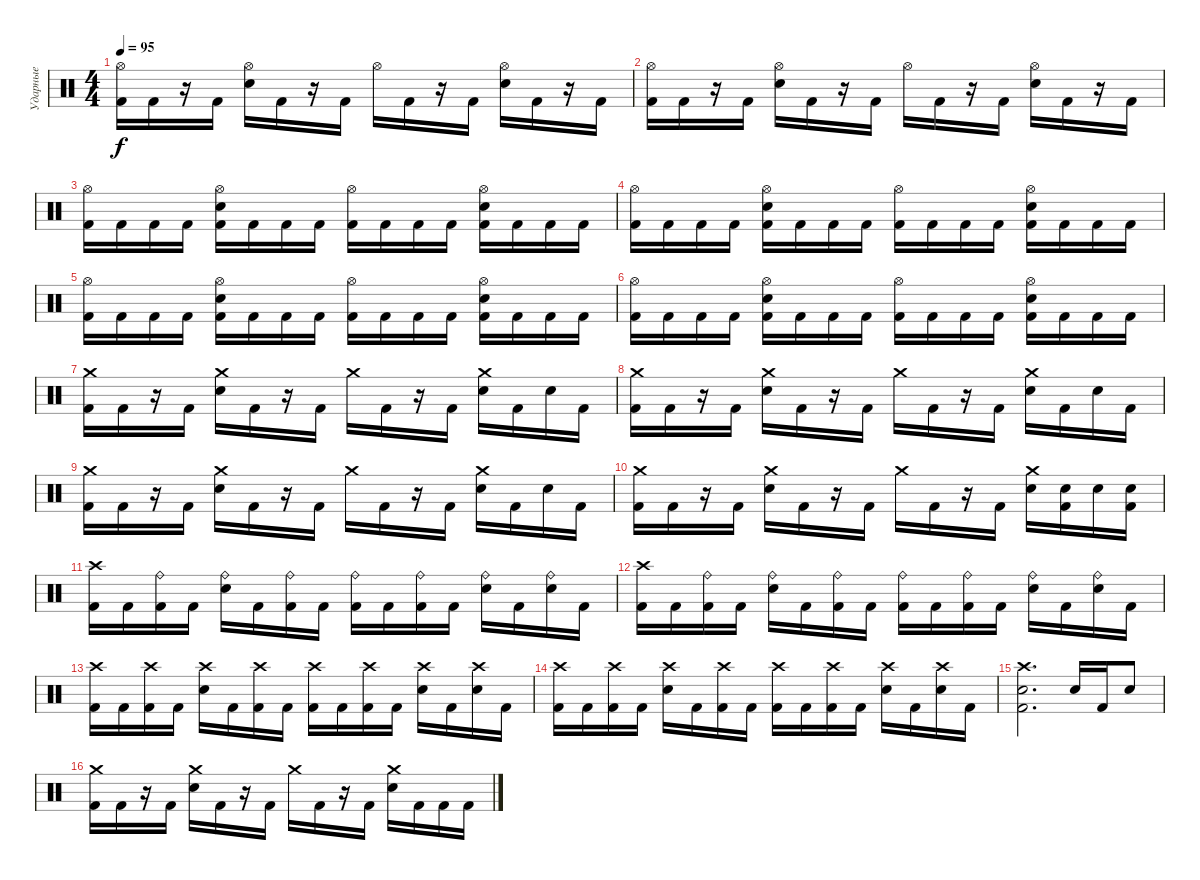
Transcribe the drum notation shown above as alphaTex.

\track ("Ударные" "Ударные") {instrument percussion}
\staff {score}
\articulation defaults
\ts (4 4)
\tempo 95
\clef neutral
\ks c
("Hi-Hat (open)" "Kick (hit) 2").16{dy f} "Kick (hit) 2".16 r.16 "Kick (hit) 2".16 ("Hi-Hat (open)" "Electric Snare (hit)").16 "Kick (hit) 2".16 r.16 "Kick (hit) 2".16 "Hi-Hat (open)".16 "Kick (hit) 2".16 r.16 "Kick (hit) 2".16 ("Hi-Hat (open)" "Electric Snare (hit)").16 "Kick (hit) 2".16 r.16 "Kick (hit) 2".16 |
("Hi-Hat (open)" "Kick (hit) 2").16 "Kick (hit) 2".16 r.16 "Kick (hit) 2".16 ("Hi-Hat (open)" "Electric Snare (hit)").16 "Kick (hit) 2".16 r.16 "Kick (hit) 2".16 "Hi-Hat (open)".16 "Kick (hit) 2".16 r.16 "Kick (hit) 2".16 ("Hi-Hat (open)" "Electric Snare (hit)").16 "Kick (hit) 2".16 r.16 "Kick (hit) 2".16 |
("Hi-Hat (open)" "Kick (hit) 2").16 "Kick (hit) 2".16 "Kick (hit) 2".16 "Kick (hit) 2".16 ("Hi-Hat (open)" "Electric Snare (hit)" "Kick (hit) 2").16 "Kick (hit) 2".16 "Kick (hit) 2".16 "Kick (hit) 2".16 ("Hi-Hat (open)" "Kick (hit) 2").16 "Kick (hit) 2".16 "Kick (hit) 2".16 "Kick (hit) 2".16 ("Hi-Hat (open)" "Electric Snare (hit)" "Kick (hit) 2").16 "Kick (hit) 2".16 "Kick (hit) 2".16 "Kick (hit) 2".16 |
("Hi-Hat (open)" "Kick (hit) 2").16 "Kick (hit) 2".16 "Kick (hit) 2".16 "Kick (hit) 2".16 ("Hi-Hat (open)" "Electric Snare (hit)" "Kick (hit) 2").16 "Kick (hit) 2".16 "Kick (hit) 2".16 "Kick (hit) 2".16 ("Hi-Hat (open)" "Kick (hit) 2").16 "Kick (hit) 2".16 "Kick (hit) 2".16 "Kick (hit) 2".16 ("Hi-Hat (open)" "Electric Snare (hit)" "Kick (hit) 2").16 "Kick (hit) 2".16 "Kick (hit) 2".16 "Kick (hit) 2".16 |
("Hi-Hat (open)" "Kick (hit) 2").16 "Kick (hit) 2".16 "Kick (hit) 2".16 "Kick (hit) 2".16 ("Hi-Hat (open)" "Electric Snare (hit)" "Kick (hit) 2").16 "Kick (hit) 2".16 "Kick (hit) 2".16 "Kick (hit) 2".16 ("Hi-Hat (open)" "Kick (hit) 2").16 "Kick (hit) 2".16 "Kick (hit) 2".16 "Kick (hit) 2".16 ("Hi-Hat (open)" "Electric Snare (hit)" "Kick (hit) 2").16 "Kick (hit) 2".16 "Kick (hit) 2".16 "Kick (hit) 2".16 |
("Hi-Hat (open)" "Kick (hit) 2").16 "Kick (hit) 2".16 "Kick (hit) 2".16 "Kick (hit) 2".16 ("Hi-Hat (open)" "Electric Snare (hit)" "Kick (hit) 2").16 "Kick (hit) 2".16 "Kick (hit) 2".16 "Kick (hit) 2".16 ("Hi-Hat (open)" "Kick (hit) 2").16 "Kick (hit) 2".16 "Kick (hit) 2".16 "Kick (hit) 2".16 ("Hi-Hat (open)" "Electric Snare (hit)" "Kick (hit) 2").16 "Kick (hit) 2".16 "Kick (hit) 2".16 "Kick (hit) 2".16 |
("Crash medium (hit)" "Kick (hit) 2").16 "Kick (hit) 2".16 r.16 "Kick (hit) 2".16 ("Crash medium (hit)" "Electric Snare (hit)").16 "Kick (hit) 2".16 r.16 "Kick (hit) 2".16 "Crash medium (hit)".16 "Kick (hit) 2".16 r.16 "Kick (hit) 2".16 ("Crash medium (hit)" "Electric Snare (hit)").16 "Kick (hit) 2".16 "Electric Snare (hit)".16 "Kick (hit) 2".16 |
("Crash medium (hit)" "Kick (hit) 2").16 "Kick (hit) 2".16 r.16 "Kick (hit) 2".16 ("Crash medium (hit)" "Electric Snare (hit)").16 "Kick (hit) 2".16 r.16 "Kick (hit) 2".16 "Crash medium (hit)".16 "Kick (hit) 2".16 r.16 "Kick (hit) 2".16 ("Crash medium (hit)" "Electric Snare (hit)").16 "Kick (hit) 2".16 "Electric Snare (hit)".16 "Kick (hit) 2".16 |
("Crash medium (hit)" "Kick (hit) 2").16 "Kick (hit) 2".16 r.16 "Kick (hit) 2".16 ("Crash medium (hit)" "Electric Snare (hit)").16 "Kick (hit) 2".16 r.16 "Kick (hit) 2".16 "Crash medium (hit)".16 "Kick (hit) 2".16 r.16 "Kick (hit) 2".16 ("Crash medium (hit)" "Electric Snare (hit)").16 "Kick (hit) 2".16 "Electric Snare (hit)".16 "Kick (hit) 2".16 |
("Crash medium (hit)" "Kick (hit) 2").16 "Kick (hit) 2".16 r.16 "Kick (hit) 2".16 ("Crash medium (hit)" "Electric Snare (hit)").16 "Kick (hit) 2".16 r.16 "Kick (hit) 2".16 "Crash medium (hit)".16 "Kick (hit) 2".16 r.16 "Kick (hit) 2".16 ("Crash medium (hit)" "Electric Snare (hit)").16 ("Electric Snare (hit)" "Kick (hit) 2").16 "Electric Snare (hit)".16 ("Electric Snare (hit)" "Kick (hit) 2").16 |
("Crash high (hit)" "Kick (hit) 2").16 "Kick (hit) 2".16 ("Ride (bell)" "Kick (hit) 2").16 "Kick (hit) 2".16 ("Ride (bell)" "Electric Snare (hit)").16 "Kick (hit) 2".16 ("Ride (bell)" "Kick (hit) 2").16 "Kick (hit) 2".16 ("Ride (bell)" "Kick (hit) 2").16 "Kick (hit) 2".16 ("Ride (bell)" "Kick (hit) 2").16 "Kick (hit) 2".16 ("Ride (bell)" "Electric Snare (hit)").16 "Kick (hit) 2".16 ("Ride (bell)" "Electric Snare (hit)").16 "Kick (hit) 2".16 |
("Crash high (hit)" "Kick (hit) 2").16 "Kick (hit) 2".16 ("Ride (bell)" "Kick (hit) 2").16 "Kick (hit) 2".16 ("Ride (bell)" "Electric Snare (hit)").16 "Kick (hit) 2".16 ("Ride (bell)" "Kick (hit) 2").16 "Kick (hit) 2".16 ("Ride (bell)" "Kick (hit) 2").16 "Kick (hit) 2".16 ("Ride (bell)" "Kick (hit) 2").16 "Kick (hit) 2".16 ("Ride (bell)" "Electric Snare (hit)").16 "Kick (hit) 2".16 ("Ride (bell)" "Electric Snare (hit)").16 "Kick (hit) 2".16 |
("Crash high (hit)" "Kick (hit) 2").16 "Kick (hit) 2".16 ("Crash high (hit)" "Kick (hit) 2").16 "Kick (hit) 2".16 ("Crash high (hit)" "Electric Snare (hit)").16 "Kick (hit) 2".16 ("Crash high (hit)" "Kick (hit) 2").16 "Kick (hit) 2".16 ("Crash high (hit)" "Kick (hit) 2").16 "Kick (hit) 2".16 ("Crash high (hit)" "Kick (hit) 2").16 "Kick (hit) 2".16 ("Crash high (hit)" "Electric Snare (hit)").16 "Kick (hit) 2".16 ("Crash high (hit)" "Electric Snare (hit)").16 "Kick (hit) 2".16 |
("Crash high (hit)" "Kick (hit) 2").16 "Kick (hit) 2".16 ("Crash high (hit)" "Kick (hit) 2").16 "Kick (hit) 2".16 ("Crash high (hit)" "Electric Snare (hit)").16 "Kick (hit) 2".16 ("Crash high (hit)" "Kick (hit) 2").16 "Kick (hit) 2".16 ("Crash high (hit)" "Kick (hit) 2").16 "Kick (hit) 2".16 ("Crash high (hit)" "Kick (hit) 2").16 "Kick (hit) 2".16 ("Crash high (hit)" "Electric Snare (hit)").16 "Kick (hit) 2".16 ("Crash high (hit)" "Electric Snare (hit)").16 "Kick (hit) 2".16 |
("Crash high (hit)" "Electric Snare (hit)" "Kick (hit) 2").2{d} "Electric Snare (hit)".16 "Kick (hit) 2".16 "Electric Snare (hit)".8 |
("Crash medium (hit)" "Kick (hit) 2").16 "Kick (hit) 2".16 r.16 "Kick (hit) 2".16 ("Crash medium (hit)" "Electric Snare (hit)").16 "Kick (hit) 2".16 r.16 "Kick (hit) 2".16 "Crash medium (hit)".16 "Kick (hit) 2".16 r.16 "Kick (hit) 2".16 ("Crash medium (hit)" "Electric Snare (hit)").16 "Kick (hit) 2".16 "Kick (hit) 2".16 "Kick (hit) 2".16
